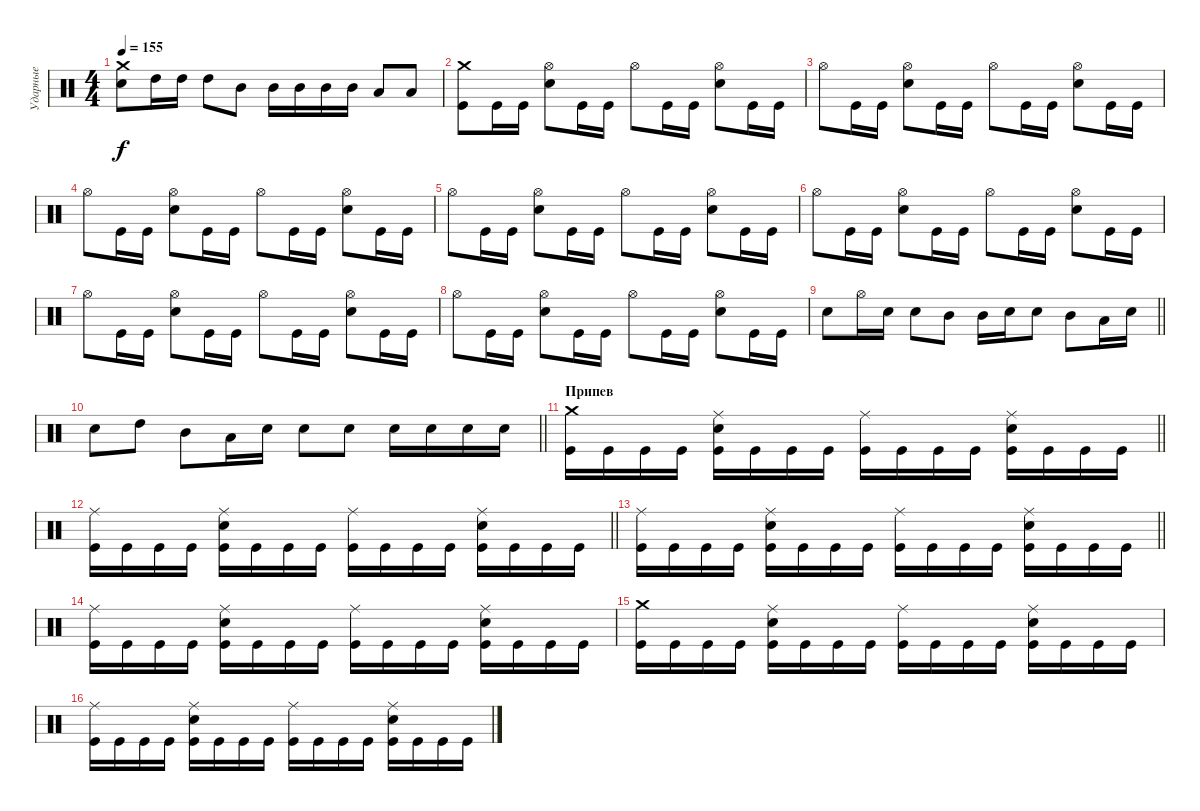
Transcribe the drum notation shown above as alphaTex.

\track ("Ударные" "Ударные") {instrument percussion}
\staff {score}
\articulation defaults
\ts (4 4)
\tempo 155
\clef neutral
\ks c
("Snare (hit) 2" "Crash medium (hit)").8{dy f} "High Tom (hit)".16 "High Tom (hit)".16 "High Tom (hit)".8 "Mid Tom (hit)".8 "Mid Tom (hit)".16 "Mid Tom (hit)".16 "Mid Tom (hit)".16 "Mid Tom (hit)".16 "Low Tom (hit)".8 "Low Tom (hit)".8 |
("Kick (hit)" "Crash medium (hit)").8 "Kick (hit)".16 "Kick (hit)".16 ("Snare (hit) 2" "Hi-Hat (open)").8 "Kick (hit)".16 "Kick (hit)".16 "Hi-Hat (open)".8 "Kick (hit)".16 "Kick (hit)".16 ("Snare (hit) 2" "Hi-Hat (open)").8 "Kick (hit)".16 "Kick (hit)".16 |
"Hi-Hat (open)".8 "Kick (hit)".16 "Kick (hit)".16 ("Snare (hit) 2" "Hi-Hat (open)").8 "Kick (hit)".16 "Kick (hit)".16 "Hi-Hat (open)".8 "Kick (hit)".16 "Kick (hit)".16 ("Snare (hit) 2" "Hi-Hat (open)").8 "Kick (hit)".16 "Kick (hit)".16 |
"Hi-Hat (open)".8 "Kick (hit)".16 "Kick (hit)".16 ("Snare (hit) 2" "Hi-Hat (open)").8 "Kick (hit)".16 "Kick (hit)".16 "Hi-Hat (open)".8 "Kick (hit)".16 "Kick (hit)".16 ("Snare (hit) 2" "Hi-Hat (open)").8 "Kick (hit)".16 "Kick (hit)".16 |
"Hi-Hat (open)".8 "Kick (hit)".16 "Kick (hit)".16 ("Snare (hit) 2" "Hi-Hat (open)").8 "Kick (hit)".16 "Kick (hit)".16 "Hi-Hat (open)".8 "Kick (hit)".16 "Kick (hit)".16 ("Snare (hit) 2" "Hi-Hat (open)").8 "Kick (hit)".16 "Kick (hit)".16 |
"Hi-Hat (open)".8 "Kick (hit)".16 "Kick (hit)".16 ("Snare (hit) 2" "Hi-Hat (open)").8 "Kick (hit)".16 "Kick (hit)".16 "Hi-Hat (open)".8 "Kick (hit)".16 "Kick (hit)".16 ("Snare (hit) 2" "Hi-Hat (open)").8 "Kick (hit)".16 "Kick (hit)".16 |
"Hi-Hat (open)".8 "Kick (hit)".16 "Kick (hit)".16 ("Snare (hit) 2" "Hi-Hat (open)").8 "Kick (hit)".16 "Kick (hit)".16 "Hi-Hat (open)".8 "Kick (hit)".16 "Kick (hit)".16 ("Snare (hit) 2" "Hi-Hat (open)").8 "Kick (hit)".16 "Kick (hit)".16 |
"Hi-Hat (open)".8 "Kick (hit)".16 "Kick (hit)".16 ("Snare (hit) 2" "Hi-Hat (open)").8 "Kick (hit)".16 "Kick (hit)".16 "Hi-Hat (open)".8 "Kick (hit)".16 "Kick (hit)".16 ("Snare (hit) 2" "Hi-Hat (open)").8 "Kick (hit)".16 "Kick (hit)".16 |
\barLineRight lightlight "Snare (hit) 2".8 "Hi-Hat (open)".16 "Snare (hit) 2".16 "Snare (hit) 2".8 "Mid Tom (hit)".8 "Mid Tom (hit)".16 "Snare (hit) 2".16 "Snare (hit) 2".8 "Mid Tom (hit)".8 "Low Tom (hit)".16 "Snare (hit) 2".16
|
\barLineRight lightlight "Snare (hit) 2".8 "High Tom (hit)".8 "Mid Tom (hit)".8 "Low Tom (hit)".16 "Snare (hit) 2".16 "Snare (hit) 2".8 "Snare (hit) 2".8 "Snare (hit) 2".16 "Snare (hit) 2".16 "Snare (hit) 2".16 "Snare (hit) 2".16
|
\section ("" "Припев")
\barLineRight lightlight
("Kick (hit)" "Crash medium (hit)").16 "Kick (hit)".16 "Kick (hit)".16 "Kick (hit)".16 ("Kick (hit)" "Snare (hit) 2" "Ride (middle)").16 "Kick (hit)".16 "Kick (hit)".16 "Kick (hit)".16 ("Kick (hit)" "Ride (middle)").16 "Kick (hit)".16 "Kick (hit)".16 "Kick (hit)".16 ("Kick (hit)" "Snare (hit) 2" "Ride (middle)").16 "Kick (hit)".16 "Kick (hit)".16 "Kick (hit)".16 |
\barLineRight lightlight
("Kick (hit)" "Ride (middle)").16 "Kick (hit)".16 "Kick (hit)".16 "Kick (hit)".16 ("Kick (hit)" "Snare (hit) 2" "Ride (middle)").16 "Kick (hit)".16 "Kick (hit)".16 "Kick (hit)".16 ("Kick (hit)" "Ride (middle)").16 "Kick (hit)".16 "Kick (hit)".16 "Kick (hit)".16 ("Kick (hit)" "Snare (hit) 2" "Ride (middle)").16 "Kick (hit)".16 "Kick (hit)".16 "Kick (hit)".16 |
\barLineRight lightlight
("Kick (hit)" "Ride (middle)").16 "Kick (hit)".16 "Kick (hit)".16 "Kick (hit)".16 ("Kick (hit)" "Snare (hit) 2" "Ride (middle)").16 "Kick (hit)".16 "Kick (hit)".16 "Kick (hit)".16 ("Kick (hit)" "Ride (middle)").16 "Kick (hit)".16 "Kick (hit)".16 "Kick (hit)".16 ("Kick (hit)" "Snare (hit) 2" "Ride (middle)").16 "Kick (hit)".16 "Kick (hit)".16 "Kick (hit)".16 |
("Kick (hit)" "Ride (middle)").16 "Kick (hit)".16 "Kick (hit)".16 "Kick (hit)".16 ("Kick (hit)" "Snare (hit) 2" "Ride (middle)").16 "Kick (hit)".16 "Kick (hit)".16 "Kick (hit)".16 ("Kick (hit)" "Ride (middle)").16 "Kick (hit)".16 "Kick (hit)".16 "Kick (hit)".16 ("Kick (hit)" "Snare (hit) 2" "Ride (middle)").16 "Kick (hit)".16 "Kick (hit)".16 "Kick (hit)".16 |
("Kick (hit)" "Crash medium (hit)").16 "Kick (hit)".16 "Kick (hit)".16 "Kick (hit)".16 ("Kick (hit)" "Snare (hit) 2" "Ride (middle)").16 "Kick (hit)".16 "Kick (hit)".16 "Kick (hit)".16 ("Kick (hit)" "Ride (middle)").16 "Kick (hit)".16 "Kick (hit)".16 "Kick (hit)".16 ("Kick (hit)" "Snare (hit) 2" "Ride (middle)").16 "Kick (hit)".16 "Kick (hit)".16 "Kick (hit)".16 |
("Kick (hit)" "Ride (middle)").16 "Kick (hit)".16 "Kick (hit)".16 "Kick (hit)".16 ("Kick (hit)" "Snare (hit) 2" "Ride (middle)").16 "Kick (hit)".16 "Kick (hit)".16 "Kick (hit)".16 ("Kick (hit)" "Ride (middle)").16 "Kick (hit)".16 "Kick (hit)".16 "Kick (hit)".16 ("Kick (hit)" "Snare (hit) 2" "Ride (middle)").16 "Kick (hit)".16 "Kick (hit)".16 "Kick (hit)".16
